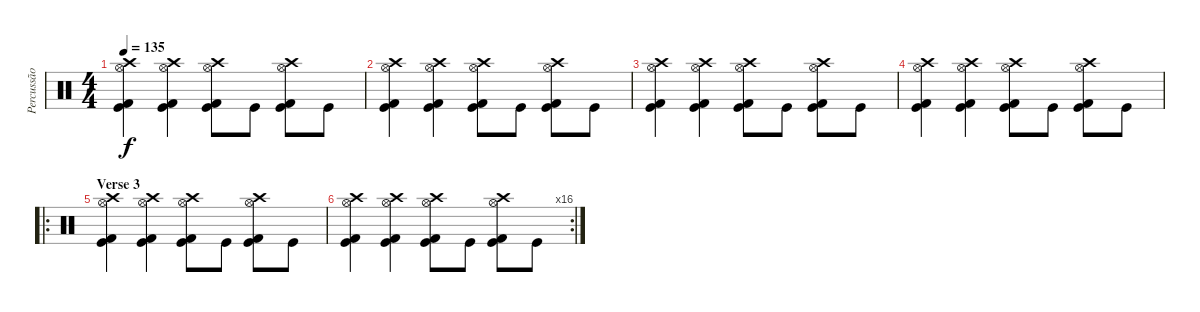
\track ("Percussão" "Percussão") {instrument percussion}
\staff {score}
\articulation defaults
\ts (4 4)
\tempo 135
\clef neutral
\ks c
("Kick (hit)" "Hi-Hat (open)" "Kick (hit) 2" "Crash high (hit)").4{dy f} ("Kick (hit)" "Hi-Hat (open)" "Kick (hit) 2" "Crash high (hit)").4 ("Kick (hit)" "Hi-Hat (open)" "Kick (hit) 2" "Crash high (hit)").8 "Kick (hit)".8 ("Kick (hit)" "Hi-Hat (open)" "Kick (hit) 2" "Crash high (hit)").8 "Kick (hit)".8 |
("Kick (hit)" "Hi-Hat (open)" "Kick (hit) 2" "Crash high (hit)").4 ("Kick (hit)" "Hi-Hat (open)" "Kick (hit) 2" "Crash high (hit)").4 ("Kick (hit)" "Hi-Hat (open)" "Kick (hit) 2" "Crash high (hit)").8 "Kick (hit)".8 ("Kick (hit)" "Hi-Hat (open)" "Kick (hit) 2" "Crash high (hit)").8 "Kick (hit)".8 |
("Kick (hit)" "Hi-Hat (open)" "Kick (hit) 2" "Crash high (hit)").4 ("Kick (hit)" "Hi-Hat (open)" "Kick (hit) 2" "Crash high (hit)").4 ("Kick (hit)" "Hi-Hat (open)" "Kick (hit) 2" "Crash high (hit)").8 "Kick (hit)".8 ("Kick (hit)" "Hi-Hat (open)" "Kick (hit) 2" "Crash high (hit)").8 "Kick (hit)".8 |
("Kick (hit)" "Hi-Hat (open)" "Kick (hit) 2" "Crash high (hit)").4 ("Kick (hit)" "Hi-Hat (open)" "Kick (hit) 2" "Crash high (hit)").4 ("Kick (hit)" "Hi-Hat (open)" "Kick (hit) 2" "Crash high (hit)").8 "Kick (hit)".8 ("Kick (hit)" "Hi-Hat (open)" "Kick (hit) 2" "Crash high (hit)").8 "Kick (hit)".8 |
\ro
\section ("" "Verse 3")
("Kick (hit)" "Hi-Hat (open)" "Kick (hit) 2" "Crash high (hit)").4 ("Kick (hit)" "Hi-Hat (open)" "Kick (hit) 2" "Crash high (hit)").4 ("Kick (hit)" "Hi-Hat (open)" "Kick (hit) 2" "Crash high (hit)").8 "Kick (hit)".8 ("Kick (hit)" "Hi-Hat (open)" "Kick (hit) 2" "Crash high (hit)").8 "Kick (hit)".8 |
\rc 16
("Kick (hit)" "Hi-Hat (open)" "Kick (hit) 2" "Crash high (hit)").4 ("Kick (hit)" "Hi-Hat (open)" "Kick (hit) 2" "Crash high (hit)").4 ("Kick (hit)" "Hi-Hat (open)" "Kick (hit) 2" "Crash high (hit)").8 "Kick (hit)".8 ("Kick (hit)" "Hi-Hat (open)" "Kick (hit) 2" "Crash high (hit)").8 "Kick (hit)".8
